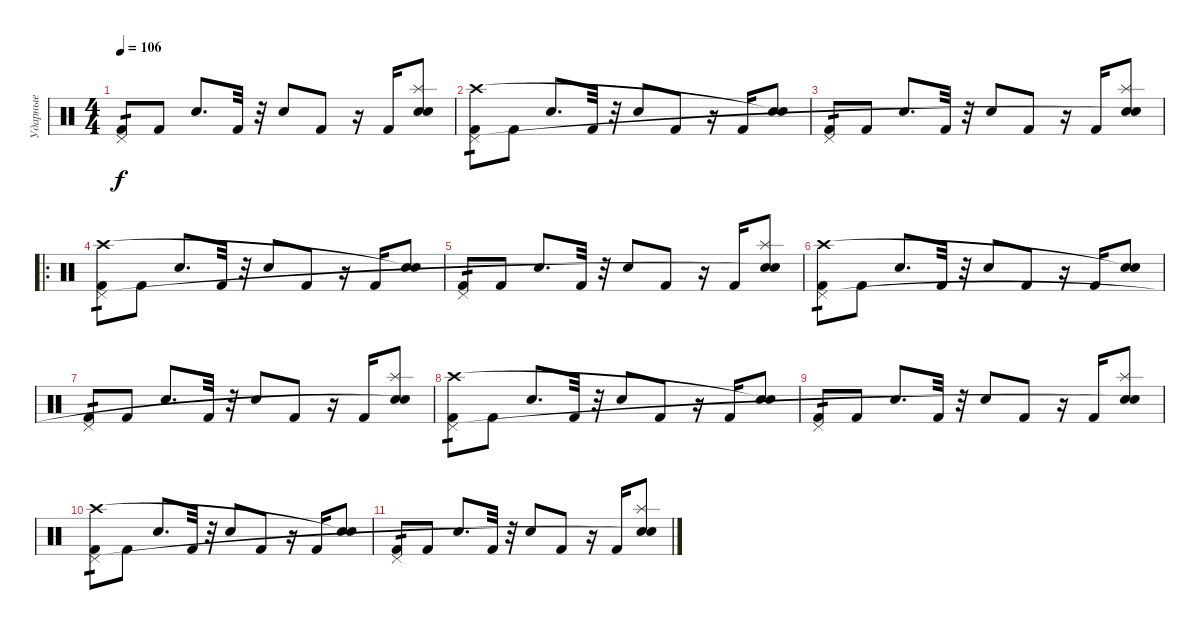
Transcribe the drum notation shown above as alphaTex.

\track ("Ударные" "Ударные") {instrument percussion}
\staff {score}
\articulation defaults
\ts (4 4)
\tempo 106
\clef neutral
\ks c
("Kick (hit) 2" "Pedal Hi-Hat (hit)").8{tp 1 dy f} "Kick (hit) 2".8 "Electric Snare (hit)".8{d} "Kick (hit) 2".32 r.32 "Electric Snare (hit)".8 "Kick (hit) 2".8 r.16 "Kick (hit) 2".16 ("Electric Snare (hit)" "Splash (hit)" "Snare (hit)"{t}).8 |
("Kick (hit) 2" "Crash high (hit)" "Pedal Hi-Hat (hit)").8{tp 1} "Kick (hit) 2".8 "Electric Snare (hit)".8{d} "Kick (hit) 2".32 r.32 "Electric Snare (hit)".8 "Kick (hit) 2".8 r.16 "Kick (hit) 2".16 ("Electric Snare (hit)" "Snare (hit)"{t}).8 |
("Kick (hit) 2" "Pedal Hi-Hat (hit)").8{tp 1} "Kick (hit) 2".8 "Electric Snare (hit)".8{d} "Kick (hit) 2".32 r.32 "Electric Snare (hit)".8 "Kick (hit) 2".8 r.16 "Kick (hit) 2".16 ("Electric Snare (hit)" "Splash (hit)" "Snare (hit)"{t}).8 |
\ro
("Kick (hit) 2" "Crash high (hit)" "Pedal Hi-Hat (hit)").8{tp 1} "Kick (hit) 2".8 "Electric Snare (hit)".8{d} "Kick (hit) 2".32 r.32 "Electric Snare (hit)".8 "Kick (hit) 2".8 r.16 "Kick (hit) 2".16 ("Electric Snare (hit)" "Snare (hit)"{t}).8 |
("Kick (hit) 2" "Pedal Hi-Hat (hit)").8{tp 1} "Kick (hit) 2".8 "Electric Snare (hit)".8{d} "Kick (hit) 2".32 r.32 "Electric Snare (hit)".8 "Kick (hit) 2".8 r.16 "Kick (hit) 2".16 ("Electric Snare (hit)" "Splash (hit)" "Snare (hit)"{t}).8 |
("Kick (hit) 2" "Crash high (hit)" "Pedal Hi-Hat (hit)").8{tp 1} "Kick (hit) 2".8 "Electric Snare (hit)".8{d} "Kick (hit) 2".32 r.32 "Electric Snare (hit)".8 "Kick (hit) 2".8 r.16 "Kick (hit) 2".16 ("Electric Snare (hit)" "Snare (hit)"{t}).8 |
("Kick (hit) 2" "Pedal Hi-Hat (hit)").8{tp 1} "Kick (hit) 2".8 "Electric Snare (hit)".8{d} "Kick (hit) 2".32 r.32 "Electric Snare (hit)".8 "Kick (hit) 2".8 r.16 "Kick (hit) 2".16 ("Electric Snare (hit)" "Splash (hit)" "Snare (hit)"{t}).8 |
("Kick (hit) 2" "Crash high (hit)" "Pedal Hi-Hat (hit)").8{tp 1} "Kick (hit) 2".8 "Electric Snare (hit)".8{d} "Kick (hit) 2".32 r.32 "Electric Snare (hit)".8 "Kick (hit) 2".8 r.16 "Kick (hit) 2".16 ("Electric Snare (hit)" "Snare (hit)"{t}).8 |
("Kick (hit) 2" "Pedal Hi-Hat (hit)").8{tp 1} "Kick (hit) 2".8 "Electric Snare (hit)".8{d} "Kick (hit) 2".32 r.32 "Electric Snare (hit)".8 "Kick (hit) 2".8 r.16 "Kick (hit) 2".16 ("Electric Snare (hit)" "Splash (hit)" "Snare (hit)"{t}).8 |
("Kick (hit) 2" "Crash high (hit)" "Pedal Hi-Hat (hit)").8{tp 1} "Kick (hit) 2".8 "Electric Snare (hit)".8{d} "Kick (hit) 2".32 r.32 "Electric Snare (hit)".8 "Kick (hit) 2".8 r.16 "Kick (hit) 2".16 ("Electric Snare (hit)" "Snare (hit)"{t}).8 |
("Kick (hit) 2" "Pedal Hi-Hat (hit)").8{tp 1} "Kick (hit) 2".8 "Electric Snare (hit)".8{d} "Kick (hit) 2".32 r.32 "Electric Snare (hit)".8 "Kick (hit) 2".8 r.16 "Kick (hit) 2".16 ("Electric Snare (hit)" "Splash (hit)" "Snare (hit)"{t}).8
